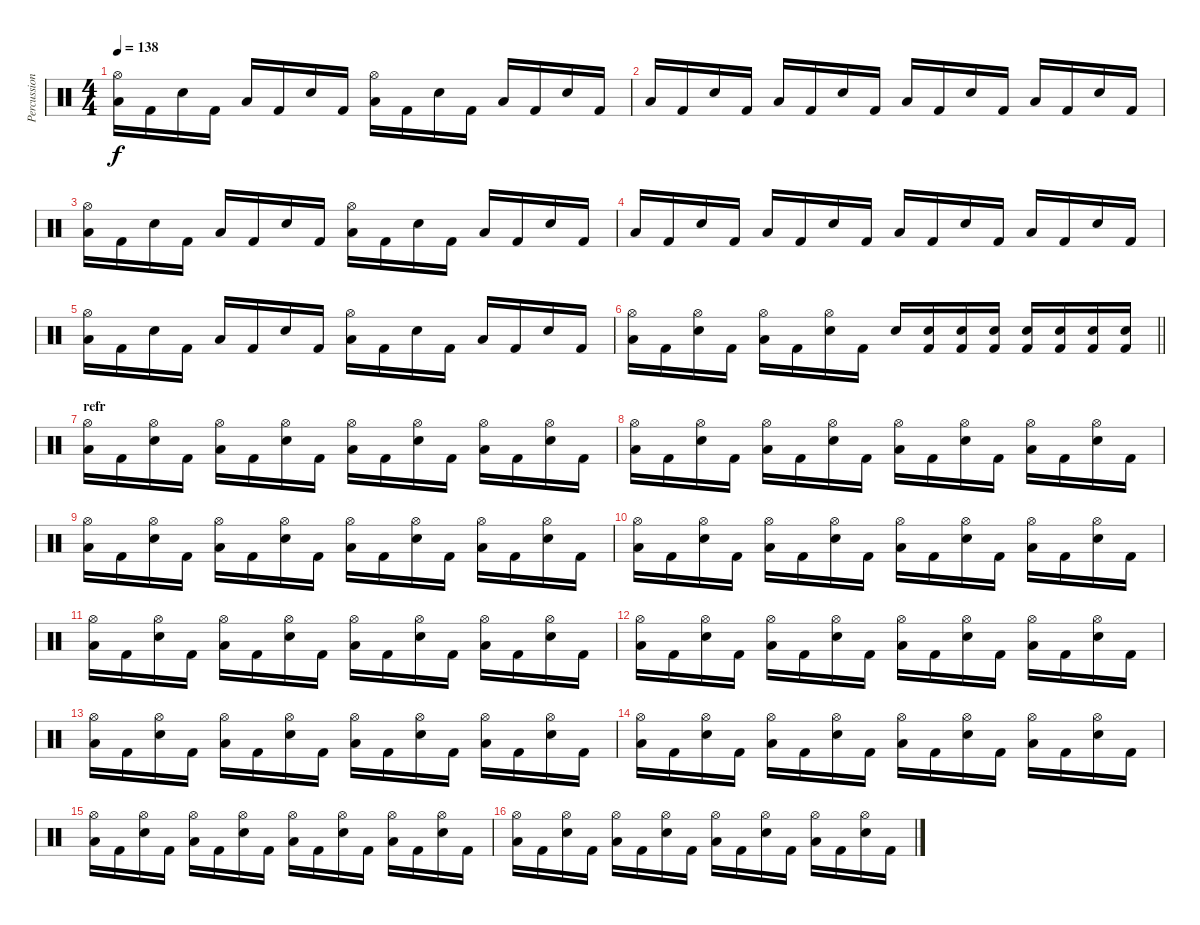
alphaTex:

\track ("Percussion" "Percussion") {instrument percussion}
\staff {score}
\articulation defaults
\ts (4 4)
\tempo 138
\clef neutral
\ks c
("Hi-Hat (open)" "Low Tom (hit)").16{dy f} "Kick (hit) 2".16 "Snare (hit) 2".16 "Kick (hit) 2".16 "Low Tom (hit)".16 "Kick (hit) 2".16 "Snare (hit) 2".16 "Kick (hit) 2".16 ("Hi-Hat (open)" "Low Tom (hit)").16 "Kick (hit) 2".16 "Snare (hit) 2".16 "Kick (hit) 2".16 "Low Tom (hit)".16 "Kick (hit) 2".16 "Snare (hit) 2".16 "Kick (hit) 2".16 |
"Low Tom (hit)".16 "Kick (hit) 2".16 "Snare (hit) 2".16 "Kick (hit) 2".16 "Low Tom (hit)".16 "Kick (hit) 2".16 "Snare (hit) 2".16 "Kick (hit) 2".16 "Low Tom (hit)".16 "Kick (hit) 2".16 "Snare (hit) 2".16 "Kick (hit) 2".16 "Low Tom (hit)".16 "Kick (hit) 2".16 "Snare (hit) 2".16 "Kick (hit) 2".16 |
("Hi-Hat (open)" "Low Tom (hit)").16 "Kick (hit) 2".16 "Snare (hit) 2".16 "Kick (hit) 2".16 "Low Tom (hit)".16 "Kick (hit) 2".16 "Snare (hit) 2".16 "Kick (hit) 2".16 ("Hi-Hat (open)" "Low Tom (hit)").16 "Kick (hit) 2".16 "Snare (hit) 2".16 "Kick (hit) 2".16 "Low Tom (hit)".16 "Kick (hit) 2".16 "Snare (hit) 2".16 "Kick (hit) 2".16 |
"Low Tom (hit)".16 "Kick (hit) 2".16 "Snare (hit) 2".16 "Kick (hit) 2".16 "Low Tom (hit)".16 "Kick (hit) 2".16 "Snare (hit) 2".16 "Kick (hit) 2".16 "Low Tom (hit)".16 "Kick (hit) 2".16 "Snare (hit) 2".16 "Kick (hit) 2".16 "Low Tom (hit)".16 "Kick (hit) 2".16 "Snare (hit) 2".16 "Kick (hit) 2".16 |
("Hi-Hat (open)" "Low Tom (hit)").16 "Kick (hit) 2".16 "Snare (hit) 2".16 "Kick (hit) 2".16 "Low Tom (hit)".16 "Kick (hit) 2".16 "Snare (hit) 2".16 "Kick (hit) 2".16 ("Hi-Hat (open)" "Low Tom (hit)").16 "Kick (hit) 2".16 "Snare (hit) 2".16 "Kick (hit) 2".16 "Low Tom (hit)".16 "Kick (hit) 2".16 "Snare (hit) 2".16 "Kick (hit) 2".16 |
\barLineRight lightlight
("Hi-Hat (open)" "Low Tom (hit)").16 "Kick (hit) 2".16 ("Hi-Hat (open)" "Snare (hit) 2").16 "Kick (hit) 2".16 ("Hi-Hat (open)" "Low Tom (hit)").16 "Kick (hit) 2".16 ("Hi-Hat (open)" "Snare (hit) 2").16 "Kick (hit) 2".16 "Snare (hit) 2".16 ("Snare (hit) 2" "Kick (hit) 2").16 ("Snare (hit) 2" "Kick (hit) 2").16 ("Snare (hit) 2" "Kick (hit) 2").16 ("Snare (hit) 2" "Kick (hit) 2").16 ("Snare (hit) 2" "Kick (hit) 2").16 ("Snare (hit) 2" "Kick (hit) 2").16 ("Snare (hit) 2" "Kick (hit) 2").16 |
\section ("" "refr")
("Hi-Hat (open)" "Low Tom (hit)").16 "Kick (hit) 2".16 ("Hi-Hat (open)" "Snare (hit) 2").16 "Kick (hit) 2".16 ("Hi-Hat (open)" "Low Tom (hit)").16 "Kick (hit) 2".16 ("Hi-Hat (open)" "Snare (hit) 2").16 "Kick (hit) 2".16 ("Hi-Hat (open)" "Low Tom (hit)").16 "Kick (hit) 2".16 ("Hi-Hat (open)" "Snare (hit) 2").16 "Kick (hit) 2".16 ("Hi-Hat (open)" "Low Tom (hit)").16 "Kick (hit) 2".16 ("Hi-Hat (open)" "Snare (hit) 2").16 "Kick (hit) 2".16 |
("Hi-Hat (open)" "Low Tom (hit)").16 "Kick (hit) 2".16 ("Hi-Hat (open)" "Snare (hit) 2").16 "Kick (hit) 2".16 ("Hi-Hat (open)" "Low Tom (hit)").16 "Kick (hit) 2".16 ("Hi-Hat (open)" "Snare (hit) 2").16 "Kick (hit) 2".16 ("Hi-Hat (open)" "Low Tom (hit)").16 "Kick (hit) 2".16 ("Hi-Hat (open)" "Snare (hit) 2").16 "Kick (hit) 2".16 ("Hi-Hat (open)" "Low Tom (hit)").16 "Kick (hit) 2".16 ("Hi-Hat (open)" "Snare (hit) 2").16 "Kick (hit) 2".16 |
("Hi-Hat (open)" "Low Tom (hit)").16 "Kick (hit) 2".16 ("Hi-Hat (open)" "Snare (hit) 2").16 "Kick (hit) 2".16 ("Hi-Hat (open)" "Low Tom (hit)").16 "Kick (hit) 2".16 ("Hi-Hat (open)" "Snare (hit) 2").16 "Kick (hit) 2".16 ("Hi-Hat (open)" "Low Tom (hit)").16 "Kick (hit) 2".16 ("Hi-Hat (open)" "Snare (hit) 2").16 "Kick (hit) 2".16 ("Hi-Hat (open)" "Low Tom (hit)").16 "Kick (hit) 2".16 ("Hi-Hat (open)" "Snare (hit) 2").16 "Kick (hit) 2".16 |
("Hi-Hat (open)" "Low Tom (hit)").16 "Kick (hit) 2".16 ("Hi-Hat (open)" "Snare (hit) 2").16 "Kick (hit) 2".16 ("Hi-Hat (open)" "Low Tom (hit)").16 "Kick (hit) 2".16 ("Hi-Hat (open)" "Snare (hit) 2").16 "Kick (hit) 2".16 ("Hi-Hat (open)" "Low Tom (hit)").16 "Kick (hit) 2".16 ("Hi-Hat (open)" "Snare (hit) 2").16 "Kick (hit) 2".16 ("Hi-Hat (open)" "Low Tom (hit)").16 "Kick (hit) 2".16 ("Hi-Hat (open)" "Snare (hit) 2").16 "Kick (hit) 2".16 |
("Hi-Hat (open)" "Low Tom (hit)").16 "Kick (hit) 2".16 ("Hi-Hat (open)" "Snare (hit) 2").16 "Kick (hit) 2".16 ("Hi-Hat (open)" "Low Tom (hit)").16 "Kick (hit) 2".16 ("Hi-Hat (open)" "Snare (hit) 2").16 "Kick (hit) 2".16 ("Hi-Hat (open)" "Low Tom (hit)").16 "Kick (hit) 2".16 ("Hi-Hat (open)" "Snare (hit) 2").16 "Kick (hit) 2".16 ("Hi-Hat (open)" "Low Tom (hit)").16 "Kick (hit) 2".16 ("Hi-Hat (open)" "Snare (hit) 2").16 "Kick (hit) 2".16 |
("Hi-Hat (open)" "Low Tom (hit)").16 "Kick (hit) 2".16 ("Hi-Hat (open)" "Snare (hit) 2").16 "Kick (hit) 2".16 ("Hi-Hat (open)" "Low Tom (hit)").16 "Kick (hit) 2".16 ("Hi-Hat (open)" "Snare (hit) 2").16 "Kick (hit) 2".16 ("Hi-Hat (open)" "Low Tom (hit)").16 "Kick (hit) 2".16 ("Hi-Hat (open)" "Snare (hit) 2").16 "Kick (hit) 2".16 ("Hi-Hat (open)" "Low Tom (hit)").16 "Kick (hit) 2".16 ("Hi-Hat (open)" "Snare (hit) 2").16 "Kick (hit) 2".16 |
("Hi-Hat (open)" "Low Tom (hit)").16 "Kick (hit) 2".16 ("Hi-Hat (open)" "Snare (hit) 2").16 "Kick (hit) 2".16 ("Hi-Hat (open)" "Low Tom (hit)").16 "Kick (hit) 2".16 ("Hi-Hat (open)" "Snare (hit) 2").16 "Kick (hit) 2".16 ("Hi-Hat (open)" "Low Tom (hit)").16 "Kick (hit) 2".16 ("Hi-Hat (open)" "Snare (hit) 2").16 "Kick (hit) 2".16 ("Hi-Hat (open)" "Low Tom (hit)").16 "Kick (hit) 2".16 ("Hi-Hat (open)" "Snare (hit) 2").16 "Kick (hit) 2".16 |
("Hi-Hat (open)" "Low Tom (hit)").16 "Kick (hit) 2".16 ("Hi-Hat (open)" "Snare (hit) 2").16 "Kick (hit) 2".16 ("Hi-Hat (open)" "Low Tom (hit)").16 "Kick (hit) 2".16 ("Hi-Hat (open)" "Snare (hit) 2").16 "Kick (hit) 2".16 ("Hi-Hat (open)" "Low Tom (hit)").16 "Kick (hit) 2".16 ("Hi-Hat (open)" "Snare (hit) 2").16 "Kick (hit) 2".16 ("Hi-Hat (open)" "Low Tom (hit)").16 "Kick (hit) 2".16 ("Hi-Hat (open)" "Snare (hit) 2").16 "Kick (hit) 2".16 |
("Hi-Hat (open)" "Low Tom (hit)").16 "Kick (hit) 2".16 ("Hi-Hat (open)" "Snare (hit) 2").16 "Kick (hit) 2".16 ("Hi-Hat (open)" "Low Tom (hit)").16 "Kick (hit) 2".16 ("Hi-Hat (open)" "Snare (hit) 2").16 "Kick (hit) 2".16 ("Hi-Hat (open)" "Low Tom (hit)").16 "Kick (hit) 2".16 ("Hi-Hat (open)" "Snare (hit) 2").16 "Kick (hit) 2".16 ("Hi-Hat (open)" "Low Tom (hit)").16 "Kick (hit) 2".16 ("Hi-Hat (open)" "Snare (hit) 2").16 "Kick (hit) 2".16 |
("Hi-Hat (open)" "Low Tom (hit)").16 "Kick (hit) 2".16 ("Hi-Hat (open)" "Snare (hit) 2").16 "Kick (hit) 2".16 ("Hi-Hat (open)" "Low Tom (hit)").16 "Kick (hit) 2".16 ("Hi-Hat (open)" "Snare (hit) 2").16 "Kick (hit) 2".16 ("Hi-Hat (open)" "Low Tom (hit)").16 "Kick (hit) 2".16 ("Hi-Hat (open)" "Snare (hit) 2").16 "Kick (hit) 2".16 ("Hi-Hat (open)" "Low Tom (hit)").16 "Kick (hit) 2".16 ("Hi-Hat (open)" "Snare (hit) 2").16 "Kick (hit) 2".16
